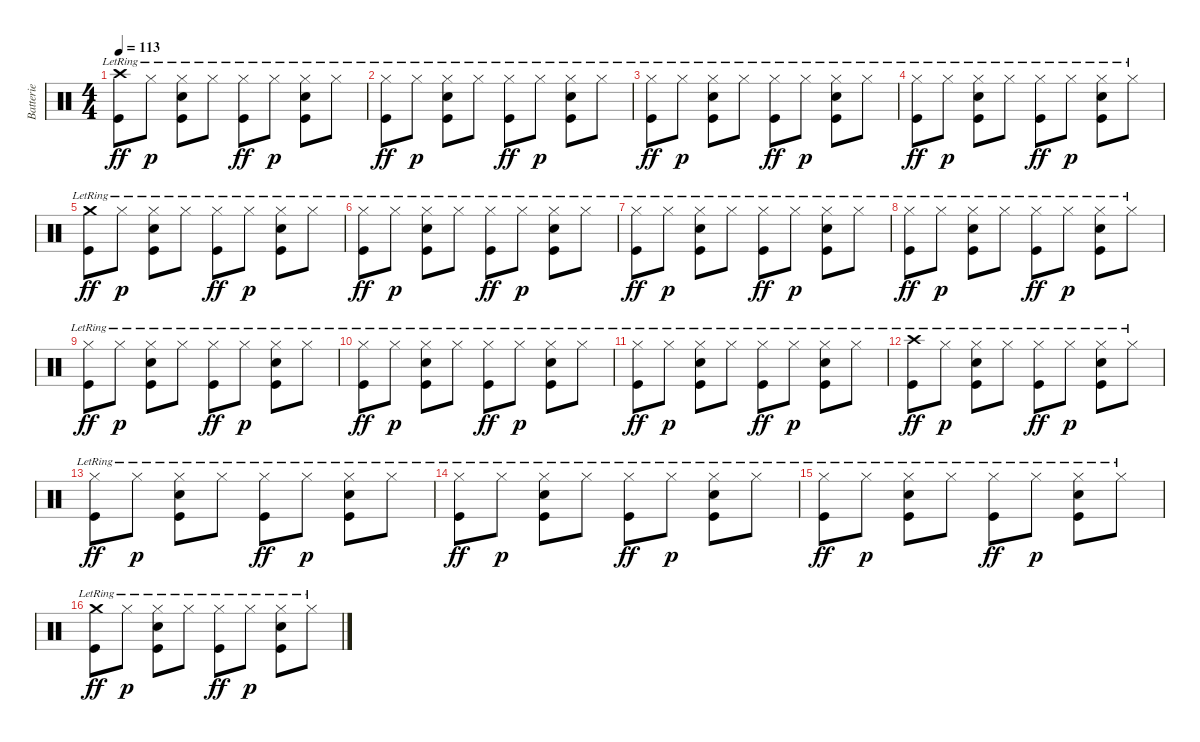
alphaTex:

\track ("Batterie" "Batterie") {instrument percussion}
\staff {score}
\articulation defaults
\ts (4 4)
\tempo 113
\clef neutral
\ks c
("Crash high (hit)"{lr} "Kick (hit)"{lr}).8{dy ff} "Hi-Hat (closed)"{lr}.8{dy p} ("Hi-Hat (closed)"{lr} "Snare (hit) 2"{lr} "Kick (hit)"{lr}).8 "Hi-Hat (closed)"{lr}.8 ("Hi-Hat (closed)"{lr} "Kick (hit)"{lr}).8{dy ff} "Hi-Hat (closed)"{lr}.8{dy p} ("Hi-Hat (closed)"{lr} "Snare (hit) 2"{lr} "Kick (hit)"{lr}).8 "Hi-Hat (closed)"{lr}.8 |
("Hi-Hat (closed)"{lr} "Kick (hit)"{lr}).8{dy ff} "Hi-Hat (closed)"{lr}.8{dy p} ("Hi-Hat (closed)"{lr} "Snare (hit) 2"{lr} "Kick (hit)"{lr}).8 "Hi-Hat (closed)"{lr}.8 ("Hi-Hat (closed)"{lr} "Kick (hit)"{lr}).8{dy ff} "Hi-Hat (closed)"{lr}.8{dy p} ("Hi-Hat (closed)"{lr} "Snare (hit) 2"{lr} "Kick (hit)"{lr}).8 "Hi-Hat (closed)"{lr}.8 |
("Hi-Hat (closed)"{lr} "Kick (hit)"{lr}).8{dy ff} "Hi-Hat (closed)"{lr}.8{dy p} ("Hi-Hat (closed)"{lr} "Snare (hit) 2"{lr} "Kick (hit)"{lr}).8 "Hi-Hat (closed)"{lr}.8 ("Hi-Hat (closed)"{lr} "Kick (hit)"{lr}).8{dy ff} "Hi-Hat (closed)"{lr}.8{dy p} ("Hi-Hat (closed)"{lr} "Snare (hit) 2"{lr} "Kick (hit)"{lr}).8 "Hi-Hat (closed)"{lr}.8 |
("Hi-Hat (closed)"{lr} "Kick (hit)"{lr}).8{dy ff} "Hi-Hat (closed)"{lr}.8{dy p} ("Hi-Hat (closed)"{lr} "Snare (hit) 2"{lr} "Kick (hit)"{lr}).8 "Hi-Hat (closed)"{lr}.8 ("Hi-Hat (closed)"{lr} "Kick (hit)"{lr}).8{dy ff} "Hi-Hat (closed)"{lr}.8{dy p} ("Hi-Hat (closed)"{lr} "Snare (hit) 2"{lr} "Kick (hit)"{lr}).8 "Hi-Hat (closed)"{lr}.8 |
("Crash medium (hit)"{lr} "Kick (hit)"{lr}).8{dy ff} "Hi-Hat (closed)"{lr}.8{dy p} ("Hi-Hat (closed)"{lr} "Snare (hit) 2"{lr} "Kick (hit)"{lr}).8 "Hi-Hat (closed)"{lr}.8 ("Hi-Hat (closed)"{lr} "Kick (hit)"{lr}).8{dy ff} "Hi-Hat (closed)"{lr}.8{dy p} ("Hi-Hat (closed)"{lr} "Snare (hit) 2"{lr} "Kick (hit)"{lr}).8 "Hi-Hat (closed)"{lr}.8 |
("Hi-Hat (closed)"{lr} "Kick (hit)"{lr}).8{dy ff} "Hi-Hat (closed)"{lr}.8{dy p} ("Hi-Hat (closed)"{lr} "Snare (hit) 2"{lr} "Kick (hit)"{lr}).8 "Hi-Hat (closed)"{lr}.8 ("Hi-Hat (closed)"{lr} "Kick (hit)"{lr}).8{dy ff} "Hi-Hat (closed)"{lr}.8{dy p} ("Hi-Hat (closed)"{lr} "Snare (hit) 2"{lr} "Kick (hit)"{lr}).8 "Hi-Hat (closed)"{lr}.8 |
("Hi-Hat (closed)"{lr} "Kick (hit)"{lr}).8{dy ff} "Hi-Hat (closed)"{lr}.8{dy p} ("Hi-Hat (closed)"{lr} "Snare (hit) 2"{lr} "Kick (hit)"{lr}).8 "Hi-Hat (closed)"{lr}.8 ("Hi-Hat (closed)"{lr} "Kick (hit)"{lr}).8{dy ff} "Hi-Hat (closed)"{lr}.8{dy p} ("Hi-Hat (closed)"{lr} "Snare (hit) 2"{lr} "Kick (hit)"{lr}).8 "Hi-Hat (closed)"{lr}.8 |
("Hi-Hat (closed)"{lr} "Kick (hit)"{lr}).8{dy ff} "Hi-Hat (closed)"{lr}.8{dy p} ("Hi-Hat (closed)"{lr} "Snare (hit) 2"{lr} "Kick (hit)"{lr}).8 "Hi-Hat (closed)"{lr}.8 ("Hi-Hat (closed)"{lr} "Kick (hit)"{lr}).8{dy ff} "Hi-Hat (closed)"{lr}.8{dy p} ("Hi-Hat (closed)"{lr} "Snare (hit) 2"{lr} "Kick (hit)"{lr}).8 "Hi-Hat (closed)"{lr}.8 |
("Hi-Hat (closed)"{lr} "Kick (hit)"{lr}).8{dy ff} "Hi-Hat (closed)"{lr}.8{dy p} ("Hi-Hat (closed)"{lr} "Snare (hit) 2"{lr} "Kick (hit)"{lr}).8 "Hi-Hat (closed)"{lr}.8 ("Hi-Hat (closed)"{lr} "Kick (hit)"{lr}).8{dy ff} "Hi-Hat (closed)"{lr}.8{dy p} ("Hi-Hat (closed)"{lr} "Snare (hit) 2"{lr} "Kick (hit)"{lr}).8 "Hi-Hat (closed)"{lr}.8 |
("Hi-Hat (closed)"{lr} "Kick (hit)"{lr}).8{dy ff} "Hi-Hat (closed)"{lr}.8{dy p} ("Hi-Hat (closed)"{lr} "Snare (hit) 2"{lr} "Kick (hit)"{lr}).8 "Hi-Hat (closed)"{lr}.8 ("Hi-Hat (closed)"{lr} "Kick (hit)"{lr}).8{dy ff} "Hi-Hat (closed)"{lr}.8{dy p} ("Hi-Hat (closed)"{lr} "Snare (hit) 2"{lr} "Kick (hit)"{lr}).8 "Hi-Hat (closed)"{lr}.8 |
("Hi-Hat (closed)"{lr} "Kick (hit)"{lr}).8{dy ff} "Hi-Hat (closed)"{lr}.8{dy p} ("Hi-Hat (closed)"{lr} "Snare (hit) 2"{lr} "Kick (hit)"{lr}).8 "Hi-Hat (closed)"{lr}.8 ("Hi-Hat (closed)"{lr} "Kick (hit)"{lr}).8{dy ff} "Hi-Hat (closed)"{lr}.8{dy p} ("Hi-Hat (closed)"{lr} "Snare (hit) 2"{lr} "Kick (hit)"{lr}).8 "Hi-Hat (closed)"{lr}.8 |
("Crash high (hit)"{lr} "Kick (hit)"{lr}).8{dy ff} "Hi-Hat (closed)"{lr}.8{dy p} ("Hi-Hat (closed)"{lr} "Snare (hit) 2"{lr} "Kick (hit)"{lr}).8 "Hi-Hat (closed)"{lr}.8 ("Hi-Hat (closed)"{lr} "Kick (hit)"{lr}).8{dy ff} "Hi-Hat (closed)"{lr}.8{dy p} ("Hi-Hat (closed)"{lr} "Snare (hit) 2"{lr} "Kick (hit)"{lr}).8 "Hi-Hat (closed)"{lr}.8 |
("Hi-Hat (closed)"{lr} "Kick (hit)"{lr}).8{dy ff} "Hi-Hat (closed)"{lr}.8{dy p} ("Hi-Hat (closed)"{lr} "Snare (hit) 2"{lr} "Kick (hit)"{lr}).8 "Hi-Hat (closed)"{lr}.8 ("Hi-Hat (closed)"{lr} "Kick (hit)"{lr}).8{dy ff} "Hi-Hat (closed)"{lr}.8{dy p} ("Hi-Hat (closed)"{lr} "Snare (hit) 2"{lr} "Kick (hit)"{lr}).8 "Hi-Hat (closed)"{lr}.8 |
("Hi-Hat (closed)"{lr} "Kick (hit)"{lr}).8{dy ff} "Hi-Hat (closed)"{lr}.8{dy p} ("Hi-Hat (closed)"{lr} "Snare (hit) 2"{lr} "Kick (hit)"{lr}).8 "Hi-Hat (closed)"{lr}.8 ("Hi-Hat (closed)"{lr} "Kick (hit)"{lr}).8{dy ff} "Hi-Hat (closed)"{lr}.8{dy p} ("Hi-Hat (closed)"{lr} "Snare (hit) 2"{lr} "Kick (hit)"{lr}).8 "Hi-Hat (closed)"{lr}.8 |
("Hi-Hat (closed)"{lr} "Kick (hit)"{lr}).8{dy ff} "Hi-Hat (closed)"{lr}.8{dy p} ("Hi-Hat (closed)"{lr} "Snare (hit) 2"{lr} "Kick (hit)"{lr}).8 "Hi-Hat (closed)"{lr}.8 ("Hi-Hat (closed)"{lr} "Kick (hit)"{lr}).8{dy ff} "Hi-Hat (closed)"{lr}.8{dy p} ("Hi-Hat (closed)"{lr} "Snare (hit) 2"{lr} "Kick (hit)"{lr}).8 "Hi-Hat (closed)"{lr}.8 |
("Crash medium (hit)"{lr} "Kick (hit)"{lr}).8{dy ff} "Hi-Hat (closed)"{lr}.8{dy p} ("Hi-Hat (closed)"{lr} "Snare (hit) 2"{lr} "Kick (hit)"{lr}).8 "Hi-Hat (closed)"{lr}.8 ("Hi-Hat (closed)"{lr} "Kick (hit)"{lr}).8{dy ff} "Hi-Hat (closed)"{lr}.8{dy p} ("Hi-Hat (closed)"{lr} "Snare (hit) 2"{lr} "Kick (hit)"{lr}).8 "Hi-Hat (closed)"{lr}.8
